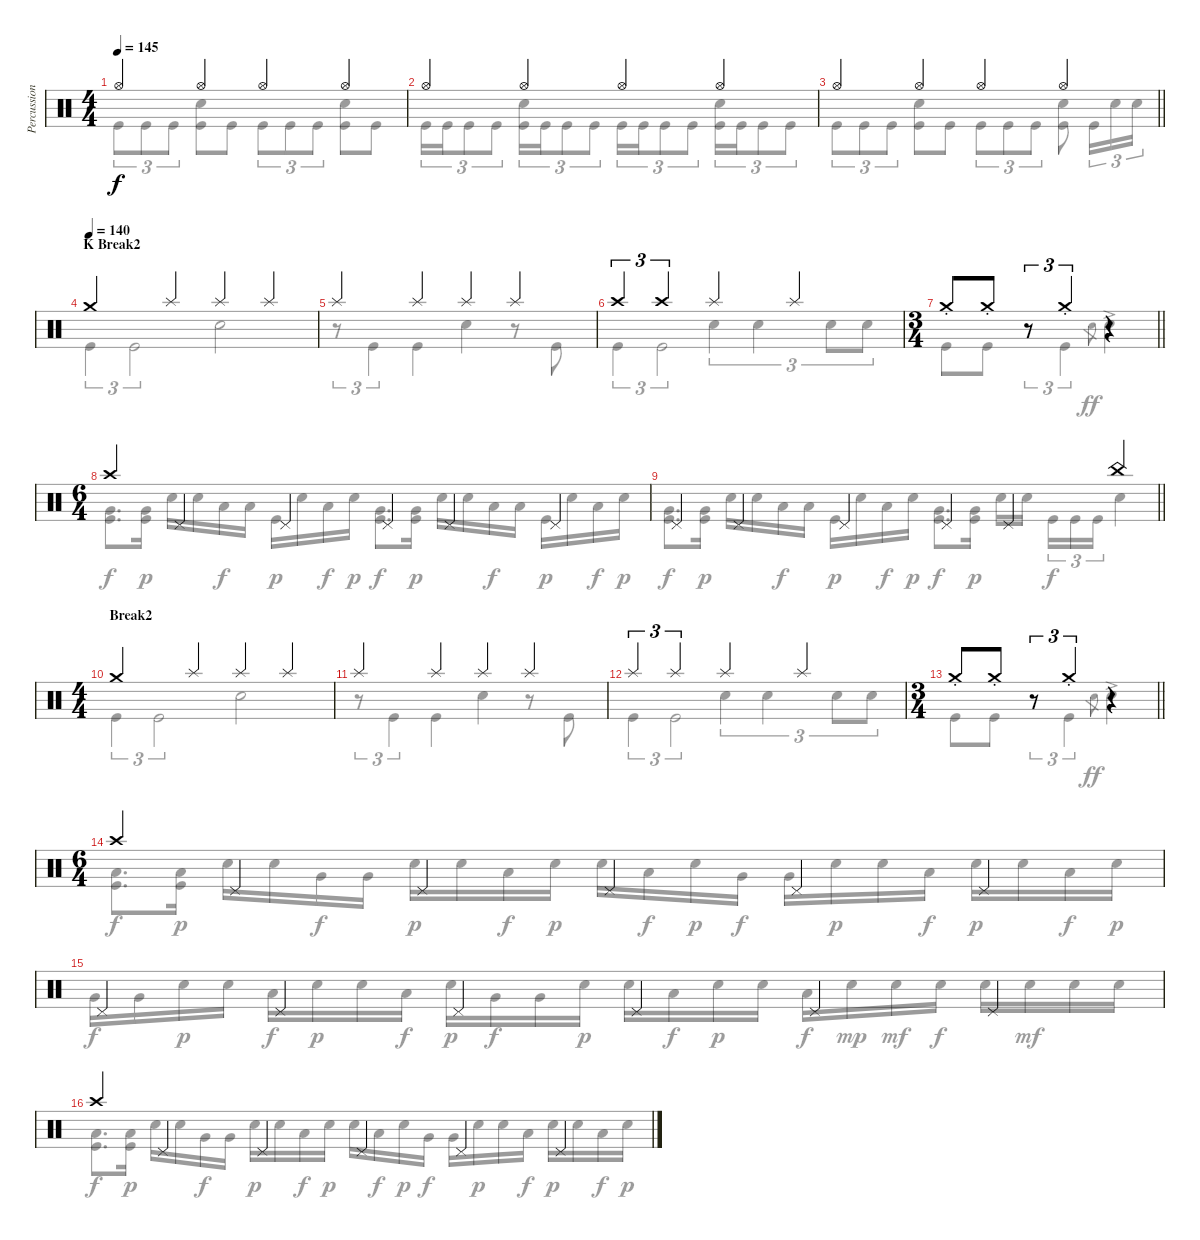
\track ("Percussions" "Percussion") {instrument percussion}
\staff {score}
\articulation defaults
\voice
\ts (4 4)
\tempo 145
\clef neutral
\ks c "Hi-Hat (open)".4{dy f} "Hi-Hat (open)".4 "Hi-Hat (open)".4 "Hi-Hat (open)".4
|
"Hi-Hat (open)".4 "Hi-Hat (open)".4 "Hi-Hat (open)".4 "Hi-Hat (open)".4 |
\barLineRight lightlight "Hi-Hat (open)".4 "Hi-Hat (open)".4 "Hi-Hat (open)".4 "Hi-Hat (open)".4
|
\section ("" "K Break2")
\tempo (140)
"Crash medium (hit)".4 "Splash (hit)".4 "Splash (hit)".4 "Splash (hit)".4 |
"Splash (hit)".4 "Splash (hit)".4 "Splash (hit)".4 "Splash (hit)".4 |
"Crash high (hit)".4{tu (3 2)} "Crash high (hit)".2{tu (3 2)} "Splash (hit)".4 "Splash (hit)".4 |
\ts (3 4)
\barLineRight lightlight "Crash medium (hit)"{st}.8 "Crash medium (hit)"{st}.8
r.8{tu (3 2)} "Crash medium (hit)"{st}.4{tu (3 2)} r.4 |
\ts (6 4)
"Crash high (hit)".4 "Pedal Hi-Hat (hit)".4 "Pedal Hi-Hat (hit)".4 "Pedal Hi-Hat (hit)".4 "Pedal Hi-Hat (hit)".4 "Pedal Hi-Hat (hit)".4 |
\barLineRight lightlight "Pedal Hi-Hat (hit)".4 "Pedal Hi-Hat (hit)".4 "Pedal Hi-Hat (hit)".4 "Pedal Hi-Hat (hit)".4 "Pedal Hi-Hat (hit)".4 "China (hit)".4
|
\ts (4 4)
\section ("" "Break2")
"Crash medium (hit)".4 "Splash (hit)".4 "Splash (hit)".4 "Splash (hit)".4 |
"Splash (hit)".4 "Splash (hit)".4 "Splash (hit)".4 "Splash (hit)".4 |
"Splash (hit)".4{tu (3 2)} "Splash (hit)".2{tu (3 2)} "Splash (hit)".4 "Splash (hit)".4 |
\ts (3 4)
\barLineRight lightlight "Crash medium (hit)"{st}.8 "Crash medium (hit)"{st}.8
r.8{tu (3 2)} "Crash medium (hit)"{st}.4{tu (3 2)} r.4 |
\ts (6 4)
"Crash high (hit)".4 "Pedal Hi-Hat (hit)".4 "Pedal Hi-Hat (hit)".4 "Pedal Hi-Hat (hit)".4 "Pedal Hi-Hat (hit)".4 "Pedal Hi-Hat (hit)".4 |
"Pedal Hi-Hat (hit)".4 "Pedal Hi-Hat (hit)".4 "Pedal Hi-Hat (hit)".4 "Pedal Hi-Hat (hit)".4 "Pedal Hi-Hat (hit)".4 "Pedal Hi-Hat (hit)".4 |
"Crash high (hit)".4 "Pedal Hi-Hat (hit)".4 "Pedal Hi-Hat (hit)".4 "Pedal Hi-Hat (hit)".4 "Pedal Hi-Hat (hit)".4 "Pedal Hi-Hat (hit)".4
\voice
\clef neutral
\ottava regular
\simile none
\ks c "Kick (hit)".8{tu (3 2) dy f} "Kick (hit)".8{tu (3 2)} "Kick (hit)".8{tu (3 2)}
("Snare (hit) 2" "Kick (hit)").8 "Kick (hit)".8 "Kick (hit)".8{tu (3 2)} "Kick (hit)".8{tu (3 2)} "Kick (hit)".8{tu (3 2)} ("Snare (hit) 2" "Kick (hit)").8 "Kick (hit)".8 |
"Kick (hit)".16{tu (3 2)} "Kick (hit)".16{tu (3 2)} "Kick (hit)".8{tu (3 2)} "Kick (hit)".8{tu (3 2)} ("Snare (hit) 2" "Kick (hit)").16{tu (3 2)} "Kick (hit)".16{tu (3 2)} "Kick (hit)".8{tu (3 2)} "Kick (hit)".8{tu (3 2)} "Kick (hit)".16{tu (3 2)} "Kick (hit)".16{tu (3 2)} "Kick (hit)".8{tu (3 2)} "Kick (hit)".8{tu (3 2)} ("Snare (hit) 2" "Kick (hit)").16{tu (3 2)} "Kick (hit)".16{tu (3 2)} "Kick (hit)".8{tu (3 2)} "Kick (hit)".8{tu (3 2)} |
\barLineRight lightlight "Kick (hit)".8{tu (3 2)} "Kick (hit)".8{tu (3 2)} "Kick (hit)".8{tu (3 2)}
("Snare (hit) 2" "Kick (hit)").8 "Kick (hit)".8 "Kick (hit)".8{tu (3 2)} "Kick (hit)".8{tu (3 2)} "Kick (hit)".8{tu (3 2)} ("Snare (hit) 2" "Kick (hit)").8 "Kick (hit)".16{tu (3 2)} "Snare (hit) 2".16{tu (3 2)} "Snare (hit) 2".16{tu (3 2)} |
"Kick (hit)".4{tu (3 2)} "Kick (hit)".2{tu (3 2)} "Snare (hit) 2".2 |
r.8{tu (3 2)} "Kick (hit)".4{tu (3 2)} "Kick (hit)".4 "Snare (hit) 2".4 r.8 "Kick (hit)".8 |
"Kick (hit)".4{tu (3 2)} "Kick (hit)".2{tu (3 2)} "Snare (hit) 2".4{tu (3 2)} "Snare (hit) 2".4{tu (3 2)} "Snare (hit) 2".8{tu (3 2)} "Snare (hit) 2".8{tu (3 2)} |
\barLineRight lightlight "Kick (hit)".8 "Kick (hit)".8
r.8{tu (3 2)} "Kick (hit)".4{tu (3 2)} "Snare (hit) 2".8{gr dy ff} "Snare (hit) 2"{ac}.4 |
("Very Low Tom (hit)" "Kick (hit)").8{d dy f} ("Very Low Tom (hit)" "Kick (hit)").16{dy p} "Snare (hit) 2".16 "Snare (hit) 2".16 "Low Floor Tom (hit)".16{dy f} "Low Floor Tom (hit)".16 "Kick (hit)".16{dy p} "Snare (hit) 2".16 "Low Floor Tom (hit)".16{dy f} "Snare (hit) 2".16{dy p} ("Very Low Tom (hit)" "Kick (hit)").8{d dy f} ("Very Low Tom (hit)" "Kick (hit)").16{dy p} "Snare (hit) 2".16 "Snare (hit) 2".16 "Low Floor Tom (hit)".16{dy f} "Low Floor Tom (hit)".16 "Kick (hit)".16{dy p} "Snare (hit) 2".16 "Low Floor Tom (hit)".16{dy f} "Snare (hit) 2".16{dy p} |
\barLineRight lightlight
("Very Low Tom (hit)" "Kick (hit)").8{d dy f} ("Very Low Tom (hit)" "Kick (hit)").16{dy p} "Snare (hit) 2".16 "Snare (hit) 2".16 "Low Floor Tom (hit)".16{dy f} "Low Floor Tom (hit)".16 "Kick (hit)".16{dy p} "Snare (hit) 2".16 "Low Floor Tom (hit)".16{dy f} "Snare (hit) 2".16{dy p} ("Very Low Tom (hit)" "Kick (hit)").8{d dy f} ("Very Low Tom (hit)" "Kick (hit)").16{dy p} "Snare (hit) 2".16 "Snare (hit) 2".16{beam splitsecondary} "Kick (hit)".16{tu (3 2) dy f} "Kick (hit)".16{tu (3 2)} "Kick (hit)".16{tu (3 2)} "Snare (hit) 2".4 |
"Kick (hit)".4{tu (3 2)} "Kick (hit)".2{tu (3 2)} "Snare (hit) 2".2 |
r.8{tu (3 2)} "Kick (hit)".4{tu (3 2)} "Kick (hit)".4 "Snare (hit) 2".4 r.8 "Kick (hit)".8 |
"Kick (hit)".4{tu (3 2)} "Kick (hit)".2{tu (3 2)} "Snare (hit) 2".4{tu (3 2)} "Snare (hit) 2".4{tu (3 2)} "Snare (hit) 2".8{tu (3 2)} "Snare (hit) 2".8{tu (3 2)} |
\barLineRight lightlight "Kick (hit)".8 "Kick (hit)".8
r.8{tu (3 2)} "Kick (hit)".4{tu (3 2)} "Snare (hit) 2".8{gr dy ff} "Snare (hit) 2"{ac}.4 |
("Low Tom (hit)" "Kick (hit)").8{d dy f} ("Low Tom (hit)" "Kick (hit)").16{dy p} "Snare (hit) 2".16 "Snare (hit) 2".16 "Very Low Tom (hit)".16{dy f} "Very Low Tom (hit)".16 "Snare (hit) 2".16{dy p} "Snare (hit) 2".16 "Low Floor Tom (hit)".16{dy f} "Snare (hit) 2".16{dy p} "Snare (hit) 2".16 "Low Floor Tom (hit)".16{dy f} "Snare (hit) 2".16{dy p} "Very Low Tom (hit)".16{dy f} "Very Low Tom (hit)".16 "Snare (hit) 2".16{dy p} "Snare (hit) 2".16 "Low Floor Tom (hit)".16{dy f} "Snare (hit) 2".16{dy p} "Snare (hit) 2".16 "Low Floor Tom (hit)".16{dy f} "Snare (hit) 2".16{dy p} |
"Very Low Tom (hit)".16{dy f} "Very Low Tom (hit)".16 "Snare (hit) 2".16{dy p} "Snare (hit) 2".16 "Low Floor Tom (hit)".16{dy f} "Snare (hit) 2".16{dy p} "Snare (hit) 2".16 "Low Floor Tom (hit)".16{dy f} "Snare (hit) 2".16{dy p} "Very Low Tom (hit)".16{dy f} "Very Low Tom (hit)".16 "Snare (hit) 2".16{dy p} "Snare (hit) 2".16 "Low Floor Tom (hit)".16{dy f} "Snare (hit) 2".16{dy p} "Snare (hit) 2".16 "Low Floor Tom (hit)".16{dy f} "Snare (hit) 2".16{dy mp} "Snare (hit) 2".16{dy mf} "Snare (hit) 2".16{dy f} "Snare (hit) 2".16 "Snare (hit) 2".16{dy mf} "Snare (hit) 2".16 "Snare (hit) 2".16 |
("Low Tom (hit)" "Kick (hit)").8{d dy f} ("Low Tom (hit)" "Kick (hit)").16{dy p} "Snare (hit) 2".16 "Snare (hit) 2".16 "Very Low Tom (hit)".16{dy f} "Very Low Tom (hit)".16 "Snare (hit) 2".16{dy p} "Snare (hit) 2".16 "Low Floor Tom (hit)".16{dy f} "Snare (hit) 2".16{dy p} "Snare (hit) 2".16 "Low Floor Tom (hit)".16{dy f} "Snare (hit) 2".16{dy p} "Very Low Tom (hit)".16{dy f} "Very Low Tom (hit)".16 "Snare (hit) 2".16{dy p} "Snare (hit) 2".16 "Low Floor Tom (hit)".16{dy f} "Snare (hit) 2".16{dy p} "Snare (hit) 2".16 "Low Floor Tom (hit)".16{dy f} "Snare (hit) 2".16{dy p}
